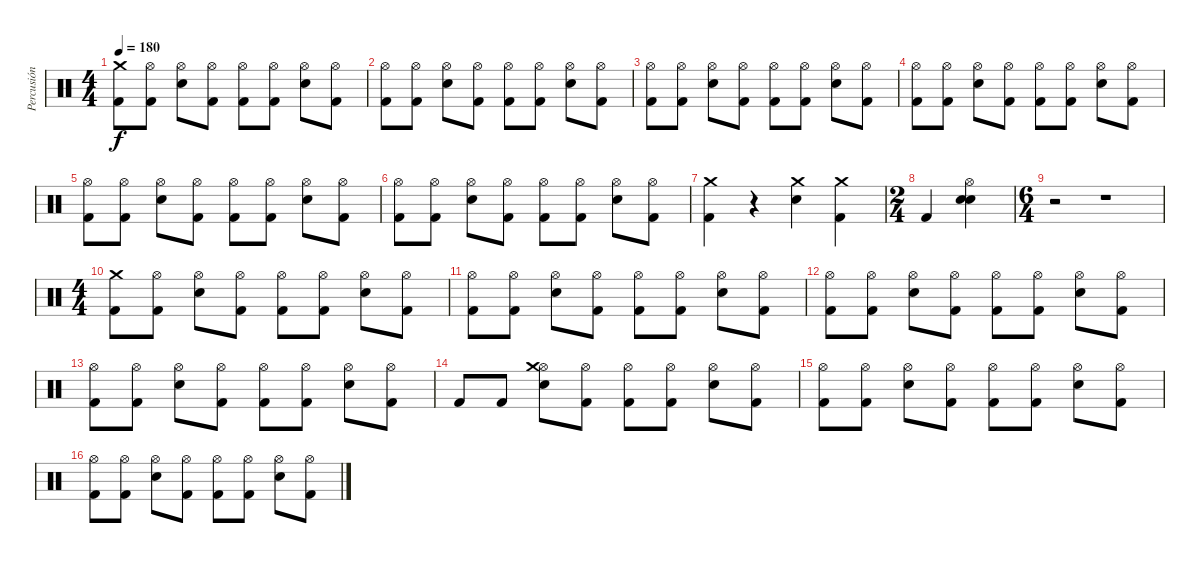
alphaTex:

\track ("Percusión" "Percusión") {instrument percussion}
\staff {score}
\articulation defaults
\ts (4 4)
\tempo 180
\clef neutral
\ks c
("Kick (hit) 2" "Crash medium (hit)").8{dy f} ("Kick (hit) 2" "Hi-Hat (open)").8 ("Electric Snare (hit)" "Hi-Hat (open)").8 ("Kick (hit) 2" "Hi-Hat (open)").8 ("Kick (hit) 2" "Hi-Hat (open)").8 ("Kick (hit) 2" "Hi-Hat (open)").8 ("Electric Snare (hit)" "Hi-Hat (open)").8 ("Kick (hit) 2" "Hi-Hat (open)").8 |
("Kick (hit) 2" "Hi-Hat (open)").8 ("Kick (hit) 2" "Hi-Hat (open)").8 ("Electric Snare (hit)" "Hi-Hat (open)").8 ("Kick (hit) 2" "Hi-Hat (open)").8 ("Kick (hit) 2" "Hi-Hat (open)").8 ("Kick (hit) 2" "Hi-Hat (open)").8 ("Electric Snare (hit)" "Hi-Hat (open)").8 ("Kick (hit) 2" "Hi-Hat (open)").8 |
("Kick (hit) 2" "Hi-Hat (open)").8 ("Kick (hit) 2" "Hi-Hat (open)").8 ("Electric Snare (hit)" "Hi-Hat (open)").8 ("Kick (hit) 2" "Hi-Hat (open)").8 ("Kick (hit) 2" "Hi-Hat (open)").8 ("Kick (hit) 2" "Hi-Hat (open)").8 ("Electric Snare (hit)" "Hi-Hat (open)").8 ("Kick (hit) 2" "Hi-Hat (open)").8 |
("Kick (hit) 2" "Hi-Hat (open)").8 ("Kick (hit) 2" "Hi-Hat (open)").8 ("Electric Snare (hit)" "Hi-Hat (open)").8 ("Kick (hit) 2" "Hi-Hat (open)").8 ("Kick (hit) 2" "Hi-Hat (open)").8 ("Kick (hit) 2" "Hi-Hat (open)").8 ("Electric Snare (hit)" "Hi-Hat (open)").8 ("Kick (hit) 2" "Hi-Hat (open)").8 |
("Kick (hit) 2" "Hi-Hat (open)").8 ("Kick (hit) 2" "Hi-Hat (open)").8 ("Electric Snare (hit)" "Hi-Hat (open)").8 ("Kick (hit) 2" "Hi-Hat (open)").8 ("Kick (hit) 2" "Hi-Hat (open)").8 ("Kick (hit) 2" "Hi-Hat (open)").8 ("Electric Snare (hit)" "Hi-Hat (open)").8 ("Kick (hit) 2" "Hi-Hat (open)").8 |
("Kick (hit) 2" "Hi-Hat (open)").8 ("Kick (hit) 2" "Hi-Hat (open)").8 ("Electric Snare (hit)" "Hi-Hat (open)").8 ("Kick (hit) 2" "Hi-Hat (open)").8 ("Kick (hit) 2" "Hi-Hat (open)").8 ("Kick (hit) 2" "Hi-Hat (open)").8 ("Electric Snare (hit)" "Hi-Hat (open)").8 ("Kick (hit) 2" "Hi-Hat (open)").8 |
("Kick (hit) 2" "Crash medium (hit)").4 r.4 ("Electric Snare (hit)" "Crash medium (hit)").4 ("Kick (hit) 2" "Crash medium (hit)").4 |
\ts (2 4)
"Kick (hit) 2".4 ("Electric Snare (hit)" "Electric Snare (hit)" "Hi-Hat (open)").4 |
\ts (6 4)
r.2 r.1 |
\ts (4 4)
("Kick (hit) 2" "Crash medium (hit)").8 ("Kick (hit) 2" "Hi-Hat (open)").8 ("Electric Snare (hit)" "Hi-Hat (open)").8 ("Kick (hit) 2" "Hi-Hat (open)").8 ("Kick (hit) 2" "Hi-Hat (open)").8 ("Kick (hit) 2" "Hi-Hat (open)").8 ("Electric Snare (hit)" "Hi-Hat (open)").8 ("Kick (hit) 2" "Hi-Hat (open)").8 |
("Kick (hit) 2" "Hi-Hat (open)").8 ("Kick (hit) 2" "Hi-Hat (open)").8 ("Electric Snare (hit)" "Hi-Hat (open)").8 ("Kick (hit) 2" "Hi-Hat (open)").8 ("Kick (hit) 2" "Hi-Hat (open)").8 ("Kick (hit) 2" "Hi-Hat (open)").8 ("Electric Snare (hit)" "Hi-Hat (open)").8 ("Kick (hit) 2" "Hi-Hat (open)").8 |
("Kick (hit) 2" "Hi-Hat (open)").8 ("Kick (hit) 2" "Hi-Hat (open)").8 ("Electric Snare (hit)" "Hi-Hat (open)").8 ("Kick (hit) 2" "Hi-Hat (open)").8 ("Kick (hit) 2" "Hi-Hat (open)").8 ("Kick (hit) 2" "Hi-Hat (open)").8 ("Electric Snare (hit)" "Hi-Hat (open)").8 ("Kick (hit) 2" "Hi-Hat (open)").8 |
("Kick (hit) 2" "Hi-Hat (open)").8 ("Kick (hit) 2" "Hi-Hat (open)").8 ("Electric Snare (hit)" "Hi-Hat (open)").8 ("Kick (hit) 2" "Hi-Hat (open)").8 ("Kick (hit) 2" "Hi-Hat (open)").8 ("Kick (hit) 2" "Hi-Hat (open)").8 ("Electric Snare (hit)" "Hi-Hat (open)").8 ("Kick (hit) 2" "Hi-Hat (open)").8 |
"Kick (hit) 2".8 "Kick (hit) 2".8 ("Electric Snare (hit)" "Hi-Hat (open)" "Crash medium (hit)").8 ("Kick (hit) 2" "Hi-Hat (open)").8 ("Kick (hit) 2" "Hi-Hat (open)").8 ("Kick (hit) 2" "Hi-Hat (open)").8 ("Electric Snare (hit)" "Hi-Hat (open)").8 ("Kick (hit) 2" "Hi-Hat (open)").8 |
("Kick (hit) 2" "Hi-Hat (open)").8 ("Kick (hit) 2" "Hi-Hat (open)").8 ("Electric Snare (hit)" "Hi-Hat (open)").8 ("Kick (hit) 2" "Hi-Hat (open)").8 ("Kick (hit) 2" "Hi-Hat (open)").8 ("Kick (hit) 2" "Hi-Hat (open)").8 ("Electric Snare (hit)" "Hi-Hat (open)").8 ("Kick (hit) 2" "Hi-Hat (open)").8 |
("Kick (hit) 2" "Hi-Hat (open)").8 ("Kick (hit) 2" "Hi-Hat (open)").8 ("Electric Snare (hit)" "Hi-Hat (open)").8 ("Kick (hit) 2" "Hi-Hat (open)").8 ("Kick (hit) 2" "Hi-Hat (open)").8 ("Kick (hit) 2" "Hi-Hat (open)").8 ("Electric Snare (hit)" "Hi-Hat (open)").8 ("Kick (hit) 2" "Hi-Hat (open)").8
